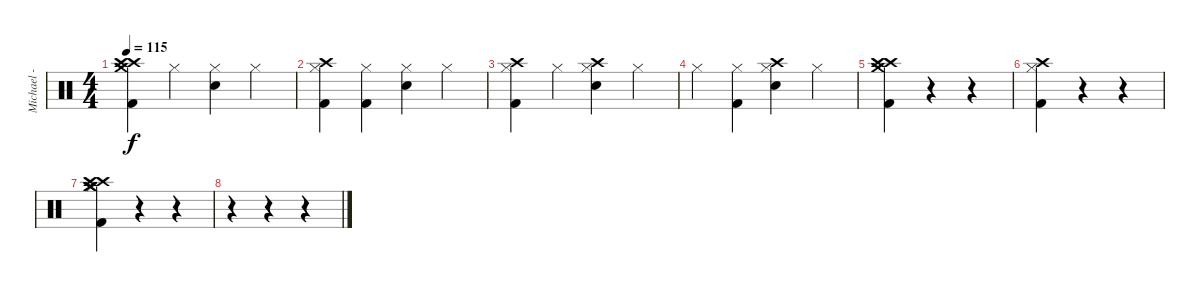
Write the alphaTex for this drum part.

\track ("Michael - Drums" "Michael - ") {instrument percussion}
\staff {score}
\articulation defaults
\ts (4 4)
\tempo 115
\clef neutral
\ks c
("Crash high (hit)" "Crash high (hit)" "Crash medium (hit)" "Kick (hit) 2").4{dy f} "Hi-Hat (closed)".4 ("Hi-Hat (closed)" "Snare (hit) 2").4 "Hi-Hat (closed)".4 |
("Crash high (hit)" "Hi-Hat (closed)" "Kick (hit) 2").4 ("Hi-Hat (closed)" "Kick (hit) 2").4 ("Hi-Hat (closed)" "Snare (hit) 2").4 "Hi-Hat (closed)".4 |
("Crash high (hit)" "Hi-Hat (closed)" "Kick (hit) 2").4 "Hi-Hat (closed)".4 ("Crash high (hit)" "Hi-Hat (closed)" "Snare (hit) 2").4 "Hi-Hat (closed)".4 |
"Hi-Hat (closed)".4 ("Hi-Hat (closed)" "Kick (hit) 2").4 ("Crash high (hit)" "Hi-Hat (closed)" "Snare (hit) 2").4 "Hi-Hat (closed)".4 |
("Crash high (hit)" "Crash high (hit)" "Crash medium (hit)" "Kick (hit) 2").4 r.4 r.4 |
("Crash high (hit)" "Hi-Hat (closed)" "Kick (hit) 2").4 r.4 r.4 |
("Crash high (hit)" "Crash medium (hit)" "Crash high (hit)" "Hi-Hat (closed)" "Kick (hit) 2" "Crash medium (hit)").4 r.4 r.4 |
r.4 r.4 r.4
